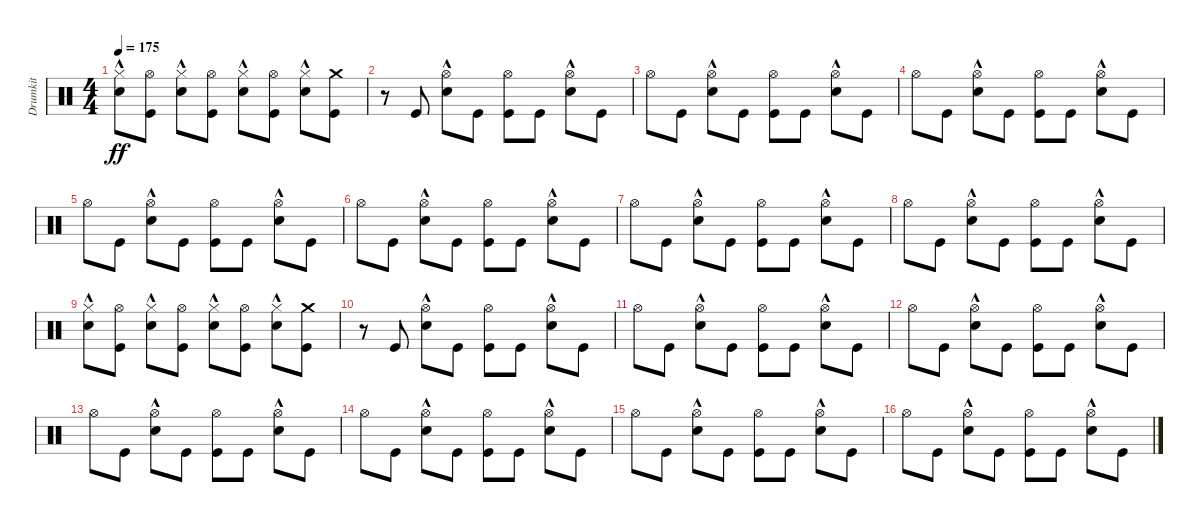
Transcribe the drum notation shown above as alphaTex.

\track ("Drumkit" "Drumkit") {instrument percussion}
\staff {score}
\articulation defaults
\ts (4 4)
\tempo 175
\clef neutral
\ks c
("Snare (hit) 2"{hac} "Hi-Hat (closed)").8{dy ff} ("Kick (hit)" "Hi-Hat (open)").8 ("Snare (hit) 2"{hac} "Hi-Hat (closed)").8 ("Kick (hit)" "Hi-Hat (open)").8 ("Snare (hit) 2"{hac} "Hi-Hat (closed)").8 ("Kick (hit)" "Hi-Hat (open)").8 ("Snare (hit) 2"{hac} "Hi-Hat (closed)").8 ("Kick (hit)" "Crash medium (hit)").8 |
r.8 "Kick (hit)".8 ("Snare (hit) 2"{hac} "Hi-Hat (open)").8 "Kick (hit)".8 ("Kick (hit)" "Hi-Hat (open)").8 "Kick (hit)".8 ("Snare (hit) 2"{hac} "Hi-Hat (open)").8 "Kick (hit)".8 |
"Hi-Hat (open)".8 "Kick (hit)".8 ("Snare (hit) 2"{hac} "Hi-Hat (open)").8 "Kick (hit)".8 ("Kick (hit)" "Hi-Hat (open)").8 "Kick (hit)".8 ("Snare (hit) 2"{hac} "Hi-Hat (open)").8 "Kick (hit)".8 |
"Hi-Hat (open)".8 "Kick (hit)".8 ("Snare (hit) 2"{hac} "Hi-Hat (open)").8 "Kick (hit)".8 ("Kick (hit)" "Hi-Hat (open)").8 "Kick (hit)".8 ("Snare (hit) 2"{hac} "Hi-Hat (open)").8 "Kick (hit)".8 |
"Hi-Hat (open)".8 "Kick (hit)".8 ("Snare (hit) 2"{hac} "Hi-Hat (open)").8 "Kick (hit)".8 ("Kick (hit)" "Hi-Hat (open)").8 "Kick (hit)".8 ("Snare (hit) 2"{hac} "Hi-Hat (open)").8 "Kick (hit)".8 |
"Hi-Hat (open)".8 "Kick (hit)".8 ("Snare (hit) 2"{hac} "Hi-Hat (open)").8 "Kick (hit)".8 ("Kick (hit)" "Hi-Hat (open)").8 "Kick (hit)".8 ("Snare (hit) 2"{hac} "Hi-Hat (open)").8 "Kick (hit)".8 |
"Hi-Hat (open)".8 "Kick (hit)".8 ("Snare (hit) 2"{hac} "Hi-Hat (open)").8 "Kick (hit)".8 ("Kick (hit)" "Hi-Hat (open)").8 "Kick (hit)".8 ("Snare (hit) 2"{hac} "Hi-Hat (open)").8 "Kick (hit)".8 |
"Hi-Hat (open)".8 "Kick (hit)".8 ("Snare (hit) 2"{hac} "Hi-Hat (open)").8 "Kick (hit)".8 ("Kick (hit)" "Hi-Hat (open)").8 "Kick (hit)".8 ("Snare (hit) 2"{hac} "Hi-Hat (open)").8 "Kick (hit)".8 |
("Snare (hit) 2"{hac} "Hi-Hat (closed)").8 ("Kick (hit)" "Hi-Hat (open)").8 ("Snare (hit) 2"{hac} "Hi-Hat (closed)").8 ("Kick (hit)" "Hi-Hat (open)").8 ("Snare (hit) 2"{hac} "Hi-Hat (closed)").8 ("Kick (hit)" "Hi-Hat (open)").8 ("Snare (hit) 2"{hac} "Hi-Hat (closed)").8 ("Kick (hit)" "Crash medium (hit)").8 |
r.8 "Kick (hit)".8 ("Snare (hit) 2"{hac} "Hi-Hat (open)").8 "Kick (hit)".8 ("Kick (hit)" "Hi-Hat (open)").8 "Kick (hit)".8 ("Snare (hit) 2"{hac} "Hi-Hat (open)").8 "Kick (hit)".8 |
"Hi-Hat (open)".8 "Kick (hit)".8 ("Snare (hit) 2"{hac} "Hi-Hat (open)").8 "Kick (hit)".8 ("Kick (hit)" "Hi-Hat (open)").8 "Kick (hit)".8 ("Snare (hit) 2"{hac} "Hi-Hat (open)").8 "Kick (hit)".8 |
"Hi-Hat (open)".8 "Kick (hit)".8 ("Snare (hit) 2"{hac} "Hi-Hat (open)").8 "Kick (hit)".8 ("Kick (hit)" "Hi-Hat (open)").8 "Kick (hit)".8 ("Snare (hit) 2"{hac} "Hi-Hat (open)").8 "Kick (hit)".8 |
"Hi-Hat (open)".8 "Kick (hit)".8 ("Snare (hit) 2"{hac} "Hi-Hat (open)").8 "Kick (hit)".8 ("Kick (hit)" "Hi-Hat (open)").8 "Kick (hit)".8 ("Snare (hit) 2"{hac} "Hi-Hat (open)").8 "Kick (hit)".8 |
"Hi-Hat (open)".8 "Kick (hit)".8 ("Snare (hit) 2"{hac} "Hi-Hat (open)").8 "Kick (hit)".8 ("Kick (hit)" "Hi-Hat (open)").8 "Kick (hit)".8 ("Snare (hit) 2"{hac} "Hi-Hat (open)").8 "Kick (hit)".8 |
"Hi-Hat (open)".8 "Kick (hit)".8 ("Snare (hit) 2"{hac} "Hi-Hat (open)").8 "Kick (hit)".8 ("Kick (hit)" "Hi-Hat (open)").8 "Kick (hit)".8 ("Snare (hit) 2"{hac} "Hi-Hat (open)").8 "Kick (hit)".8 |
"Hi-Hat (open)".8 "Kick (hit)".8 ("Snare (hit) 2"{hac} "Hi-Hat (open)").8 "Kick (hit)".8 ("Kick (hit)" "Hi-Hat (open)").8 "Kick (hit)".8 ("Snare (hit) 2"{hac} "Hi-Hat (open)").8 "Kick (hit)".8
